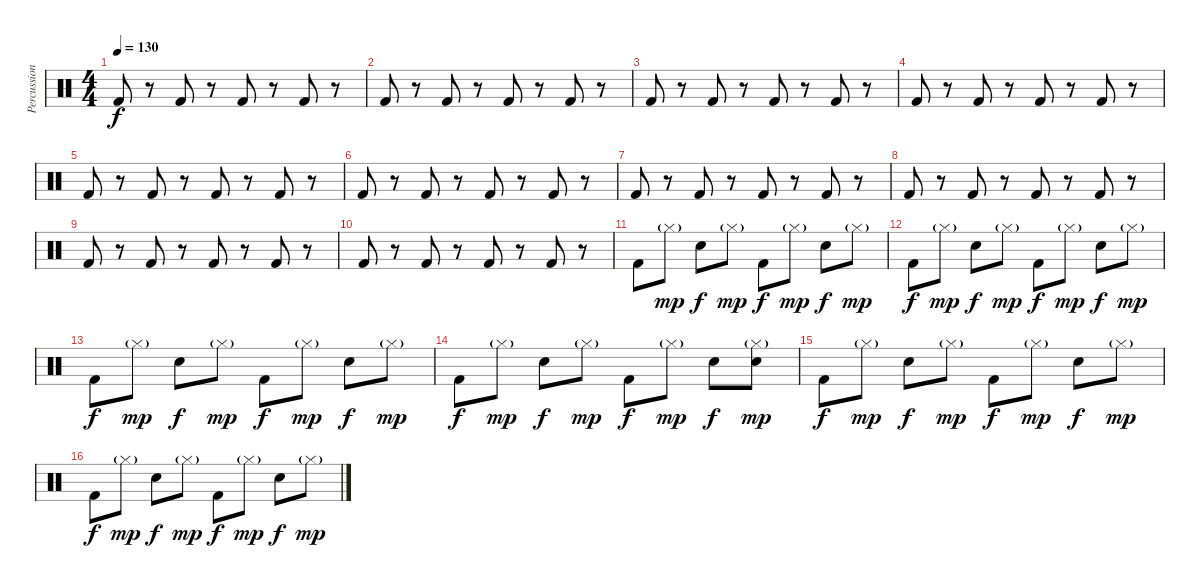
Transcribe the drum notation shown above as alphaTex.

\track ("Percussion" "Percussion") {instrument percussion}
\staff {score}
\articulation defaults
\ts (4 4)
\tempo 130
\clef neutral
\ks c "Kick (hit) 2".8{dy f}
r.8 "Kick (hit) 2".8 r.8 "Kick (hit) 2".8 r.8 "Kick (hit) 2".8 r.8 |
"Kick (hit) 2".8 r.8 "Kick (hit) 2".8 r.8 "Kick (hit) 2".8 r.8 "Kick (hit) 2".8 r.8 |
"Kick (hit) 2".8 r.8 "Kick (hit) 2".8 r.8 "Kick (hit) 2".8 r.8 "Kick (hit) 2".8 r.8 |
"Kick (hit) 2".8 r.8 "Kick (hit) 2".8 r.8 "Kick (hit) 2".8 r.8 "Kick (hit) 2".8 r.8 |
"Kick (hit) 2".8 r.8 "Kick (hit) 2".8 r.8 "Kick (hit) 2".8 r.8 "Kick (hit) 2".8 r.8 |
"Kick (hit) 2".8 r.8 "Kick (hit) 2".8 r.8 "Kick (hit) 2".8 r.8 "Kick (hit) 2".8 r.8 |
"Kick (hit) 2".8 r.8 "Kick (hit) 2".8 r.8 "Kick (hit) 2".8 r.8 "Kick (hit) 2".8 r.8 |
"Kick (hit) 2".8 r.8 "Kick (hit) 2".8 r.8 "Kick (hit) 2".8 r.8 "Kick (hit) 2".8 r.8 |
"Kick (hit) 2".8 r.8 "Kick (hit) 2".8 r.8 "Kick (hit) 2".8 r.8 "Kick (hit) 2".8 r.8 |
"Kick (hit) 2".8 r.8 "Kick (hit) 2".8 r.8 "Kick (hit) 2".8 r.8 "Kick (hit) 2".8 r.8 |
"Kick (hit) 2".8 "Hi-Hat (closed)"{g}.8{dy mp} "Electric Snare (hit)".8{dy f} "Hi-Hat (closed)"{g}.8{dy mp} "Kick (hit) 2".8{dy f} "Hi-Hat (closed)"{g}.8{dy mp} "Electric Snare (hit)".8{dy f} "Hi-Hat (closed)"{g}.8{dy mp} |
"Kick (hit) 2".8{dy f} "Hi-Hat (closed)"{g}.8{dy mp} "Electric Snare (hit)".8{dy f} "Hi-Hat (closed)"{g}.8{dy mp} "Kick (hit) 2".8{dy f} "Hi-Hat (closed)"{g}.8{dy mp} "Electric Snare (hit)".8{dy f} "Hi-Hat (closed)"{g}.8{dy mp} |
"Kick (hit) 2".8{dy f} "Hi-Hat (closed)"{g}.8{dy mp} "Electric Snare (hit)".8{dy f} "Hi-Hat (closed)"{g}.8{dy mp} "Kick (hit) 2".8{dy f} "Hi-Hat (closed)"{g}.8{dy mp} "Electric Snare (hit)".8{dy f} "Hi-Hat (closed)"{g}.8{dy mp} |
"Kick (hit) 2".8{dy f} "Hi-Hat (closed)"{g}.8{dy mp} "Electric Snare (hit)".8{dy f} "Hi-Hat (closed)"{g}.8{dy mp} "Kick (hit) 2".8{dy f} "Hi-Hat (closed)"{g}.8{dy mp} "Electric Snare (hit)".8{dy f} ("Hi-Hat (closed)"{g} "Electric Snare (hit)").8{dy mp} |
"Kick (hit) 2".8{dy f} "Hi-Hat (closed)"{g}.8{dy mp} "Electric Snare (hit)".8{dy f} "Hi-Hat (closed)"{g}.8{dy mp} "Kick (hit) 2".8{dy f} "Hi-Hat (closed)"{g}.8{dy mp} "Electric Snare (hit)".8{dy f} "Hi-Hat (closed)"{g}.8{dy mp} |
"Kick (hit) 2".8{dy f} "Hi-Hat (closed)"{g}.8{dy mp} "Electric Snare (hit)".8{dy f} "Hi-Hat (closed)"{g}.8{dy mp} "Kick (hit) 2".8{dy f} "Hi-Hat (closed)"{g}.8{dy mp} "Electric Snare (hit)".8{dy f} "Hi-Hat (closed)"{g}.8{dy mp}
